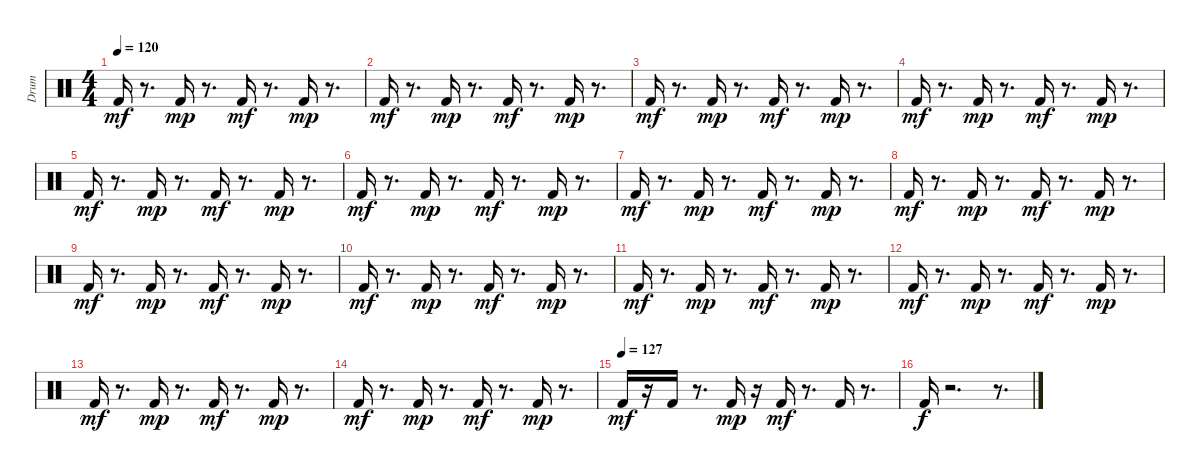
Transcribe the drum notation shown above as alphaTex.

\track ("Drum" "Drum") {instrument percussion}
\staff {score}
\articulation defaults
\ts (4 4)
\tempo 120
\clef neutral
\ks c "Kick (hit) 2".16{dy mf}
r.8{d} "Kick (hit) 2".16{dy mp} r.8{d} "Kick (hit) 2".16{dy mf} r.8{d} "Kick (hit) 2".16{dy mp} r.8{d} |
"Kick (hit) 2".16{dy mf} r.8{d} "Kick (hit) 2".16{dy mp} r.8{d} "Kick (hit) 2".16{dy mf} r.8{d} "Kick (hit) 2".16{dy mp} r.8{d} |
"Kick (hit) 2".16{dy mf} r.8{d} "Kick (hit) 2".16{dy mp} r.8{d} "Kick (hit) 2".16{dy mf} r.8{d} "Kick (hit) 2".16{dy mp} r.8{d} |
"Kick (hit) 2".16{dy mf} r.8{d} "Kick (hit) 2".16{dy mp} r.8{d} "Kick (hit) 2".16{dy mf} r.8{d} "Kick (hit) 2".16{dy mp} r.8{d} |
"Kick (hit) 2".16{dy mf} r.8{d} "Kick (hit) 2".16{dy mp} r.8{d} "Kick (hit) 2".16{dy mf} r.8{d} "Kick (hit) 2".16{dy mp} r.8{d} |
"Kick (hit) 2".16{dy mf} r.8{d} "Kick (hit) 2".16{dy mp} r.8{d} "Kick (hit) 2".16{dy mf} r.8{d} "Kick (hit) 2".16{dy mp} r.8{d} |
"Kick (hit) 2".16{dy mf} r.8{d} "Kick (hit) 2".16{dy mp} r.8{d} "Kick (hit) 2".16{dy mf} r.8{d} "Kick (hit) 2".16{dy mp} r.8{d} |
"Kick (hit) 2".16{dy mf} r.8{d} "Kick (hit) 2".16{dy mp} r.8{d} "Kick (hit) 2".16{dy mf} r.8{d} "Kick (hit) 2".16{dy mp} r.8{d} |
"Kick (hit) 2".16{dy mf} r.8{d} "Kick (hit) 2".16{dy mp} r.8{d} "Kick (hit) 2".16{dy mf} r.8{d} "Kick (hit) 2".16{dy mp} r.8{d} |
"Kick (hit) 2".16{dy mf} r.8{d} "Kick (hit) 2".16{dy mp} r.8{d} "Kick (hit) 2".16{dy mf} r.8{d} "Kick (hit) 2".16{dy mp} r.8{d} |
"Kick (hit) 2".16{dy mf} r.8{d} "Kick (hit) 2".16{dy mp} r.8{d} "Kick (hit) 2".16{dy mf} r.8{d} "Kick (hit) 2".16{dy mp} r.8{d} |
"Kick (hit) 2".16{dy mf} r.8{d} "Kick (hit) 2".16{dy mp} r.8{d} "Kick (hit) 2".16{dy mf} r.8{d} "Kick (hit) 2".16{dy mp} r.8{d} |
"Kick (hit) 2".16{dy mf} r.8{d} "Kick (hit) 2".16{dy mp} r.8{d} "Kick (hit) 2".16{dy mf} r.8{d} "Kick (hit) 2".16{dy mp} r.8{d} |
"Kick (hit) 2".16{dy mf} r.8{d} "Kick (hit) 2".16{dy mp} r.8{d} "Kick (hit) 2".16{dy mf} r.8{d} "Kick (hit) 2".16{dy mp} r.8{d} |
\tempo (127)
"Kick (hit) 2".16{dy mf} r.16 "Kick (hit) 2".16 r.8{d} "Kick (hit) 2".16{dy mp} r.16 "Kick (hit) 2".16{dy mf} r.8{d} "Kick (hit) 2".16 r.8{d} |
"Kick (hit) 2".16{dy f} r.2{d} r.8{d}
